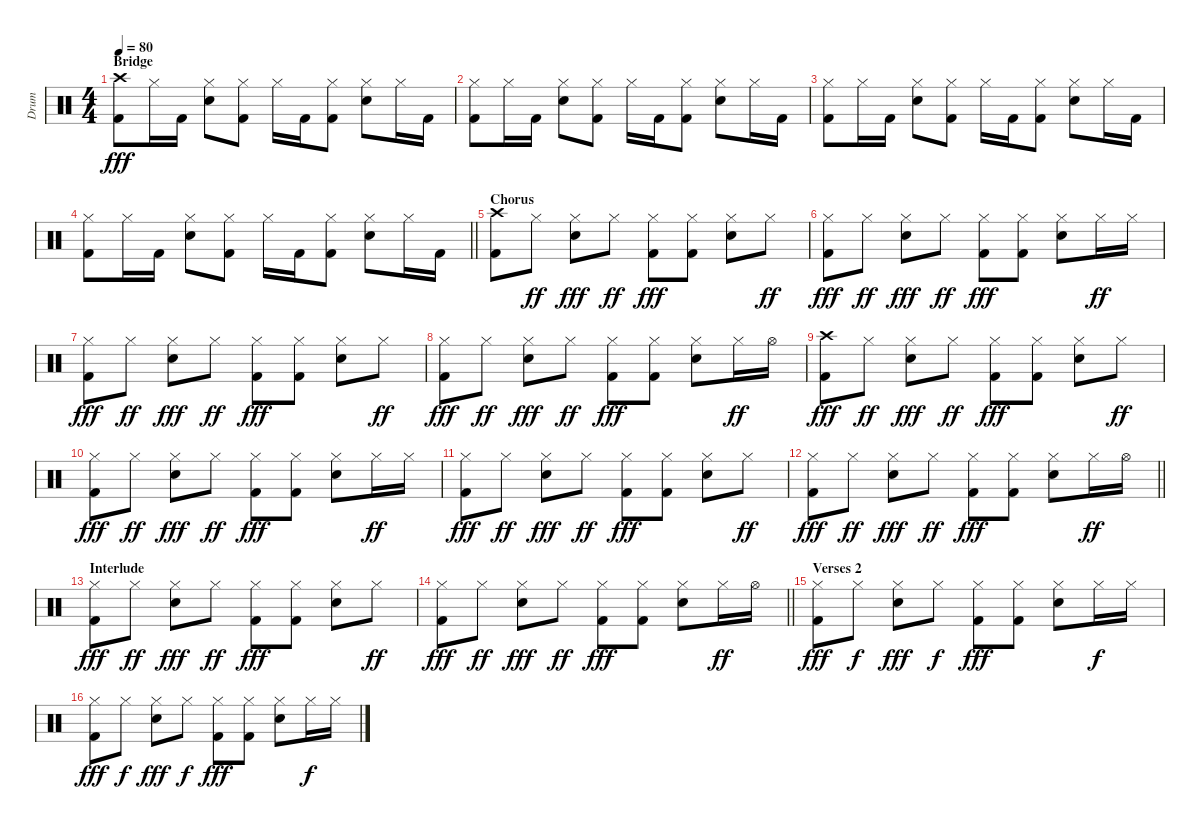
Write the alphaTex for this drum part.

\track ("Drum" "Drum") {instrument percussion}
\staff {score}
\articulation defaults
\ts (4 4)
\section ("" "Bridge")
\tempo 80
\clef neutral
\ks c
("Crash high (hit)" "Kick (hit) 2").8{dy fff} "Hi-Hat (closed)".16 "Kick (hit) 2".16 ("Hi-Hat (closed)" "Electric Snare (hit)").8 ("Hi-Hat (closed)" "Kick (hit) 2").8 "Hi-Hat (closed)".16 "Kick (hit) 2".16 ("Hi-Hat (closed)" "Kick (hit) 2").8 ("Hi-Hat (closed)" "Electric Snare (hit)").8 "Hi-Hat (closed)".16 "Kick (hit) 2".16 |
("Hi-Hat (closed)" "Kick (hit) 2").8 "Hi-Hat (closed)".16 "Kick (hit) 2".16 ("Hi-Hat (closed)" "Electric Snare (hit)").8 ("Hi-Hat (closed)" "Kick (hit) 2").8 "Hi-Hat (closed)".16 "Kick (hit) 2".16 ("Hi-Hat (closed)" "Kick (hit) 2").8 ("Hi-Hat (closed)" "Electric Snare (hit)").8 "Hi-Hat (closed)".16 "Kick (hit) 2".16 |
("Hi-Hat (closed)" "Kick (hit) 2").8 "Hi-Hat (closed)".16 "Kick (hit) 2".16 ("Hi-Hat (closed)" "Electric Snare (hit)").8 ("Hi-Hat (closed)" "Kick (hit) 2").8 "Hi-Hat (closed)".16 "Kick (hit) 2".16 ("Hi-Hat (closed)" "Kick (hit) 2").8 ("Hi-Hat (closed)" "Electric Snare (hit)").8 "Hi-Hat (closed)".16 "Kick (hit) 2".16 |
\barLineRight lightlight
("Hi-Hat (closed)" "Kick (hit) 2").8 "Hi-Hat (closed)".16 "Kick (hit) 2".16 ("Hi-Hat (closed)" "Electric Snare (hit)").8 ("Hi-Hat (closed)" "Kick (hit) 2").8 "Hi-Hat (closed)".16 "Kick (hit) 2".16 ("Hi-Hat (closed)" "Kick (hit) 2").8 ("Hi-Hat (closed)" "Electric Snare (hit)").8 "Hi-Hat (closed)".16 "Kick (hit) 2".16 |
\section ("" "Chorus")
("Crash high (hit)" "Kick (hit) 2").8 "Hi-Hat (closed)".8{dy ff} ("Hi-Hat (closed)" "Electric Snare (hit)").8{dy fff} "Hi-Hat (closed)".8{dy ff} ("Hi-Hat (closed)" "Kick (hit) 2").8{dy fff} ("Hi-Hat (closed)" "Kick (hit) 2").8 ("Hi-Hat (closed)" "Electric Snare (hit)").8 "Hi-Hat (closed)".8{dy ff} |
("Hi-Hat (closed)" "Kick (hit) 2").8{dy fff} "Hi-Hat (closed)".8{dy ff} ("Hi-Hat (closed)" "Electric Snare (hit)").8{dy fff} "Hi-Hat (closed)".8{dy ff} ("Hi-Hat (closed)" "Kick (hit) 2").8{dy fff} ("Hi-Hat (closed)" "Kick (hit) 2").8 ("Hi-Hat (closed)" "Electric Snare (hit)").8 "Hi-Hat (closed)".16{dy ff} "Hi-Hat (closed)".16 |
("Hi-Hat (closed)" "Kick (hit) 2").8{dy fff} "Hi-Hat (closed)".8{dy ff} ("Hi-Hat (closed)" "Electric Snare (hit)").8{dy fff} "Hi-Hat (closed)".8{dy ff} ("Hi-Hat (closed)" "Kick (hit) 2").8{dy fff} ("Hi-Hat (closed)" "Kick (hit) 2").8 ("Hi-Hat (closed)" "Electric Snare (hit)").8 "Hi-Hat (closed)".8{dy ff} |
("Hi-Hat (closed)" "Kick (hit) 2").8{dy fff} "Hi-Hat (closed)".8{dy ff} ("Hi-Hat (closed)" "Electric Snare (hit)").8{dy fff} "Hi-Hat (closed)".8{dy ff} ("Hi-Hat (closed)" "Kick (hit) 2").8{dy fff} ("Hi-Hat (closed)" "Kick (hit) 2").8 ("Hi-Hat (closed)" "Electric Snare (hit)").8 "Hi-Hat (closed)".16{dy ff} "Hi-Hat (open)".16 |
("Crash high (hit)" "Kick (hit) 2").8{dy fff} "Hi-Hat (closed)".8{dy ff} ("Hi-Hat (closed)" "Electric Snare (hit)").8{dy fff} "Hi-Hat (closed)".8{dy ff} ("Hi-Hat (closed)" "Kick (hit) 2").8{dy fff} ("Hi-Hat (closed)" "Kick (hit) 2").8 ("Hi-Hat (closed)" "Electric Snare (hit)").8 "Hi-Hat (closed)".8{dy ff} |
("Hi-Hat (closed)" "Kick (hit) 2").8{dy fff} "Hi-Hat (closed)".8{dy ff} ("Hi-Hat (closed)" "Electric Snare (hit)").8{dy fff} "Hi-Hat (closed)".8{dy ff} ("Hi-Hat (closed)" "Kick (hit) 2").8{dy fff} ("Hi-Hat (closed)" "Kick (hit) 2").8 ("Hi-Hat (closed)" "Electric Snare (hit)").8 "Hi-Hat (closed)".16{dy ff} "Hi-Hat (closed)".16 |
("Hi-Hat (closed)" "Kick (hit) 2").8{dy fff} "Hi-Hat (closed)".8{dy ff} ("Hi-Hat (closed)" "Electric Snare (hit)").8{dy fff} "Hi-Hat (closed)".8{dy ff} ("Hi-Hat (closed)" "Kick (hit) 2").8{dy fff} ("Hi-Hat (closed)" "Kick (hit) 2").8 ("Hi-Hat (closed)" "Electric Snare (hit)").8 "Hi-Hat (closed)".8{dy ff} |
\barLineRight lightlight
("Hi-Hat (closed)" "Kick (hit) 2").8{dy fff} "Hi-Hat (closed)".8{dy ff} ("Hi-Hat (closed)" "Electric Snare (hit)").8{dy fff} "Hi-Hat (closed)".8{dy ff} ("Hi-Hat (closed)" "Kick (hit) 2").8{dy fff} ("Hi-Hat (closed)" "Kick (hit) 2").8 ("Hi-Hat (closed)" "Electric Snare (hit)").8 "Hi-Hat (closed)".16{dy ff} "Hi-Hat (open)".16 |
\section ("" "Interlude")
("Hi-Hat (closed)" "Kick (hit) 2").8{dy fff} "Hi-Hat (closed)".8{dy ff} ("Hi-Hat (closed)" "Electric Snare (hit)").8{dy fff} "Hi-Hat (closed)".8{dy ff} ("Hi-Hat (closed)" "Kick (hit) 2").8{dy fff} ("Hi-Hat (closed)" "Kick (hit) 2").8 ("Hi-Hat (closed)" "Electric Snare (hit)").8 "Hi-Hat (closed)".8{dy ff} |
\barLineRight lightlight
("Hi-Hat (closed)" "Kick (hit) 2").8{dy fff} "Hi-Hat (closed)".8{dy ff} ("Hi-Hat (closed)" "Electric Snare (hit)").8{dy fff} "Hi-Hat (closed)".8{dy ff} ("Hi-Hat (closed)" "Kick (hit) 2").8{dy fff} ("Hi-Hat (closed)" "Kick (hit) 2").8 ("Hi-Hat (closed)" "Electric Snare (hit)").8 "Hi-Hat (closed)".16{dy ff} "Hi-Hat (open)".16 |
\section ("" "Verses 2")
("Hi-Hat (closed)" "Kick (hit) 2").8{dy fff} "Hi-Hat (closed)".8{dy f} ("Hi-Hat (closed)" "Electric Snare (hit)").8{dy fff} "Hi-Hat (closed)".8{dy f} ("Hi-Hat (closed)" "Kick (hit) 2").8{dy fff} ("Hi-Hat (closed)" "Kick (hit) 2").8 ("Hi-Hat (closed)" "Electric Snare (hit)").8 "Hi-Hat (closed)".16{dy f} "Hi-Hat (closed)".16 |
("Hi-Hat (closed)" "Kick (hit) 2").8{dy fff} "Hi-Hat (closed)".8{dy f} ("Hi-Hat (closed)" "Electric Snare (hit)").8{dy fff} "Hi-Hat (closed)".8{dy f} ("Hi-Hat (closed)" "Kick (hit) 2").8{dy fff} ("Hi-Hat (closed)" "Kick (hit) 2").8 ("Hi-Hat (closed)" "Electric Snare (hit)").8 "Hi-Hat (closed)".16{dy f} "Hi-Hat (closed)".16
